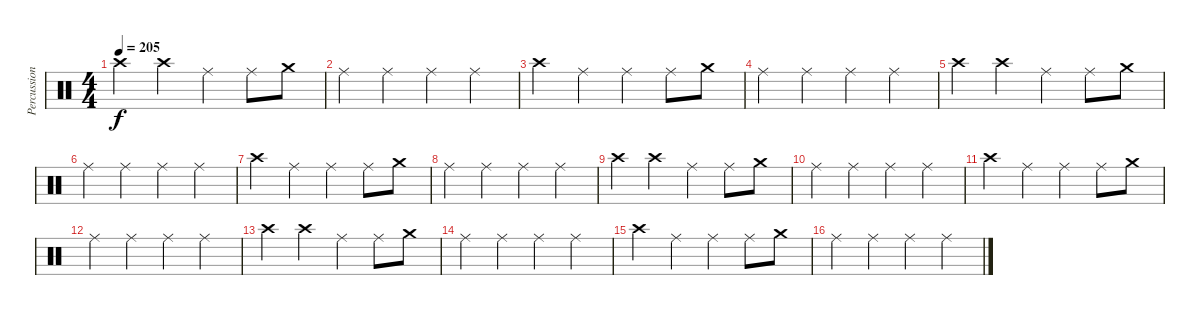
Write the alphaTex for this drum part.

\track ("Percussion" "Percussion") {instrument percussion}
\staff {score}
\articulation defaults
\ts (4 4)
\tempo 205
\clef neutral
\ks c "Crash high (hit)".4{dy f} "Crash high (hit)".4 "Ride (middle)".4 "Ride (middle)".8 "Crash medium (hit)".8
|
"Ride (middle)".4 "Ride (middle)".4 "Ride (middle)".4 "Ride (middle)".4 |
"Crash high (hit)".4 "Ride (middle)".4 "Ride (middle)".4 "Ride (middle)".8 "Crash medium (hit)".8 |
"Ride (middle)".4 "Ride (middle)".4 "Ride (middle)".4 "Ride (middle)".4 |
"Crash high (hit)".4 "Crash high (hit)".4 "Ride (middle)".4 "Ride (middle)".8 "Crash medium (hit)".8 |
"Ride (middle)".4 "Ride (middle)".4 "Ride (middle)".4 "Ride (middle)".4 |
"Crash high (hit)".4 "Ride (middle)".4 "Ride (middle)".4 "Ride (middle)".8 "Crash medium (hit)".8 |
"Ride (middle)".4 "Ride (middle)".4 "Ride (middle)".4 "Ride (middle)".4 |
"Crash high (hit)".4 "Crash high (hit)".4 "Ride (middle)".4 "Ride (middle)".8 "Crash medium (hit)".8 |
"Ride (middle)".4 "Ride (middle)".4 "Ride (middle)".4 "Ride (middle)".4 |
"Crash high (hit)".4 "Ride (middle)".4 "Ride (middle)".4 "Ride (middle)".8 "Crash medium (hit)".8 |
"Ride (middle)".4 "Ride (middle)".4 "Ride (middle)".4 "Ride (middle)".4 |
"Crash high (hit)".4 "Crash high (hit)".4 "Ride (middle)".4 "Ride (middle)".8 "Crash medium (hit)".8 |
"Ride (middle)".4 "Ride (middle)".4 "Ride (middle)".4 "Ride (middle)".4 |
"Crash high (hit)".4 "Ride (middle)".4 "Ride (middle)".4 "Ride (middle)".8 "Crash medium (hit)".8 |
"Ride (middle)".4 "Ride (middle)".4 "Ride (middle)".4 "Ride (middle)".4
